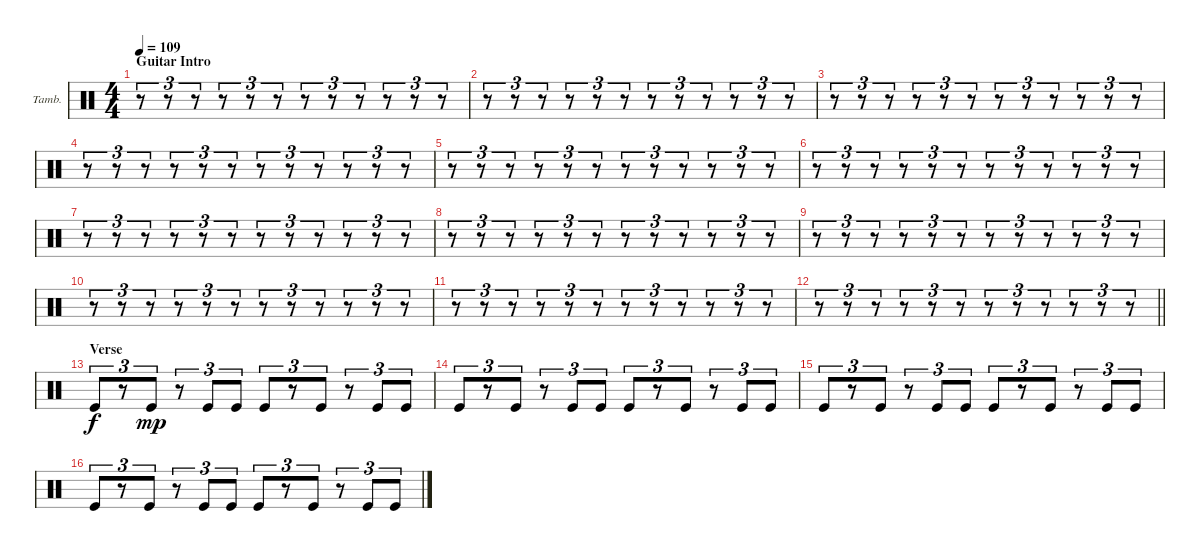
\bracketExtendMode groupsimilarinstruments
\firstSystemTrackNameOrientation horizontal
\otherSystemsTrackNameOrientation horizontal
\track ("Tambourine" "Tamb.") {instrument percussion}
\staff {score}
\articulation defaults
\ts (4 4)
\section ("" "Guitar Intro")
\tempo 109
\clef neutral
\ks c
r.8{tu (3 2) dy f} r.8{tu (3 2)} r.8{tu (3 2)} r.8{tu (3 2)} r.8{tu (3 2)} r.8{tu (3 2)} r.8{tu (3 2)} r.8{tu (3 2)} r.8{tu (3 2)} r.8{tu (3 2)} r.8{tu (3 2)} r.8{tu (3 2)} |
r.8{tu (3 2)} r.8{tu (3 2)} r.8{tu (3 2)} r.8{tu (3 2)} r.8{tu (3 2)} r.8{tu (3 2)} r.8{tu (3 2)} r.8{tu (3 2)} r.8{tu (3 2)} r.8{tu (3 2)} r.8{tu (3 2)} r.8{tu (3 2)} |
r.8{tu (3 2)} r.8{tu (3 2)} r.8{tu (3 2)} r.8{tu (3 2)} r.8{tu (3 2)} r.8{tu (3 2)} r.8{tu (3 2)} r.8{tu (3 2)} r.8{tu (3 2)} r.8{tu (3 2)} r.8{tu (3 2)} r.8{tu (3 2)} |
r.8{tu (3 2)} r.8{tu (3 2)} r.8{tu (3 2)} r.8{tu (3 2)} r.8{tu (3 2)} r.8{tu (3 2)} r.8{tu (3 2)} r.8{tu (3 2)} r.8{tu (3 2)} r.8{tu (3 2)} r.8{tu (3 2)} r.8{tu (3 2)} |
r.8{tu (3 2)} r.8{tu (3 2)} r.8{tu (3 2)} r.8{tu (3 2)} r.8{tu (3 2)} r.8{tu (3 2)} r.8{tu (3 2)} r.8{tu (3 2)} r.8{tu (3 2)} r.8{tu (3 2)} r.8{tu (3 2)} r.8{tu (3 2)} |
r.8{tu (3 2)} r.8{tu (3 2)} r.8{tu (3 2)} r.8{tu (3 2)} r.8{tu (3 2)} r.8{tu (3 2)} r.8{tu (3 2)} r.8{tu (3 2)} r.8{tu (3 2)} r.8{tu (3 2)} r.8{tu (3 2)} r.8{tu (3 2)} |
r.8{tu (3 2)} r.8{tu (3 2)} r.8{tu (3 2)} r.8{tu (3 2)} r.8{tu (3 2)} r.8{tu (3 2)} r.8{tu (3 2)} r.8{tu (3 2)} r.8{tu (3 2)} r.8{tu (3 2)} r.8{tu (3 2)} r.8{tu (3 2)} |
r.8{tu (3 2)} r.8{tu (3 2)} r.8{tu (3 2)} r.8{tu (3 2)} r.8{tu (3 2)} r.8{tu (3 2)} r.8{tu (3 2)} r.8{tu (3 2)} r.8{tu (3 2)} r.8{tu (3 2)} r.8{tu (3 2)} r.8{tu (3 2)} |
r.8{tu (3 2)} r.8{tu (3 2)} r.8{tu (3 2)} r.8{tu (3 2)} r.8{tu (3 2)} r.8{tu (3 2)} r.8{tu (3 2)} r.8{tu (3 2)} r.8{tu (3 2)} r.8{tu (3 2)} r.8{tu (3 2)} r.8{tu (3 2)} |
r.8{tu (3 2)} r.8{tu (3 2)} r.8{tu (3 2)} r.8{tu (3 2)} r.8{tu (3 2)} r.8{tu (3 2)} r.8{tu (3 2)} r.8{tu (3 2)} r.8{tu (3 2)} r.8{tu (3 2)} r.8{tu (3 2)} r.8{tu (3 2)} |
r.8{tu (3 2)} r.8{tu (3 2)} r.8{tu (3 2)} r.8{tu (3 2)} r.8{tu (3 2)} r.8{tu (3 2)} r.8{tu (3 2)} r.8{tu (3 2)} r.8{tu (3 2)} r.8{tu (3 2)} r.8{tu (3 2)} r.8{tu (3 2)} |
\barLineRight lightlight
r.8{tu (3 2)} r.8{tu (3 2)} r.8{tu (3 2)} r.8{tu (3 2)} r.8{tu (3 2)} r.8{tu (3 2)} r.8{tu (3 2)} r.8{tu (3 2)} r.8{tu (3 2)} r.8{tu (3 2)} r.8{tu (3 2)} r.8{tu (3 2)} |
\section ("" "Verse")
"Kick (hit)".8{tu (3 2)} r.8{tu (3 2)} "Kick (hit)".8{tu (3 2) dy mp} r.8{tu (3 2)} "Kick (hit)".8{tu (3 2)} "Kick (hit)".8{tu (3 2)} "Kick (hit)".8{tu (3 2)} r.8{tu (3 2)} "Kick (hit)".8{tu (3 2)} r.8{tu (3 2)} "Kick (hit)".8{tu (3 2)} "Kick (hit)".8{tu (3 2)} |
"Kick (hit)".8{tu (3 2)} r.8{tu (3 2)} "Kick (hit)".8{tu (3 2)} r.8{tu (3 2)} "Kick (hit)".8{tu (3 2)} "Kick (hit)".8{tu (3 2)} "Kick (hit)".8{tu (3 2)} r.8{tu (3 2)} "Kick (hit)".8{tu (3 2)} r.8{tu (3 2)} "Kick (hit)".8{tu (3 2)} "Kick (hit)".8{tu (3 2)} |
"Kick (hit)".8{tu (3 2)} r.8{tu (3 2)} "Kick (hit)".8{tu (3 2)} r.8{tu (3 2)} "Kick (hit)".8{tu (3 2)} "Kick (hit)".8{tu (3 2)} "Kick (hit)".8{tu (3 2)} r.8{tu (3 2)} "Kick (hit)".8{tu (3 2)} r.8{tu (3 2)} "Kick (hit)".8{tu (3 2)} "Kick (hit)".8{tu (3 2)} |
"Kick (hit)".8{tu (3 2)} r.8{tu (3 2)} "Kick (hit)".8{tu (3 2)} r.8{tu (3 2)} "Kick (hit)".8{tu (3 2)} "Kick (hit)".8{tu (3 2)} "Kick (hit)".8{tu (3 2)} r.8{tu (3 2)} "Kick (hit)".8{tu (3 2)} r.8{tu (3 2)} "Kick (hit)".8{tu (3 2)} "Kick (hit)".8{tu (3 2)}
